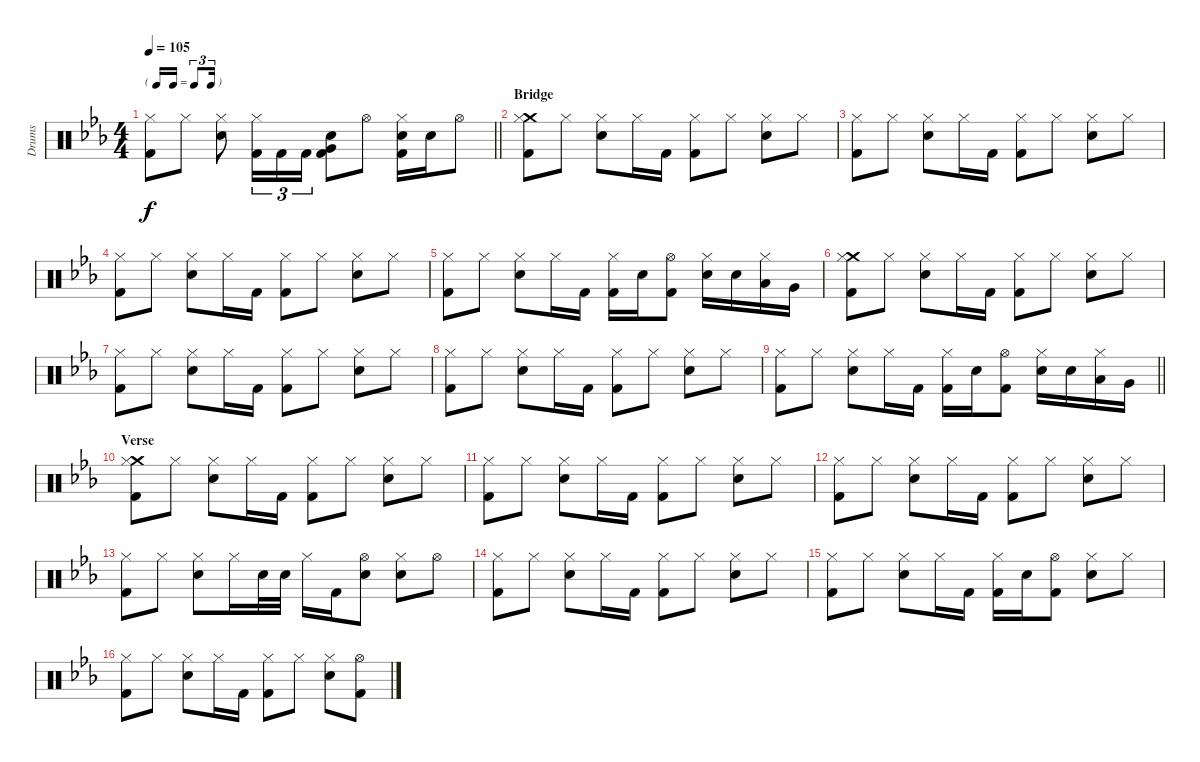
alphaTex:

\track ("Drums" "Drums") {instrument percussion}
\staff {score}
\articulation defaults
\ts (4 4)
\tf triplet16th
\tempo 105
\clef neutral
\barLineRight lightlight
\ks eb
("Hi-Hat (closed)" "Kick (hit) 2").8{dy f} "Hi-Hat (closed)".8 ("Hi-Hat (closed)" "Snare (hit) 2").8 ("Hi-Hat (closed)" "Kick (hit) 2").16{tu (3 2)} "Kick (hit) 2".16{tu (3 2)} "Kick (hit) 2".16{tu (3 2)} ("Snare (hit) 2" "Very Low Tom (hit)" "Kick (hit) 2").8 "Hi-Hat (open)".8 ("Hi-Hat (closed)" "Snare (hit) 2" "Kick (hit) 2").16 "Snare (hit) 2".16 "Hi-Hat (open)".8 |
\section ("" "Bridge")
("Crash medium (hit)" "Hi-Hat (closed)" "Kick (hit) 2").8 "Hi-Hat (closed)".8 ("Hi-Hat (closed)" "Snare (hit) 2").8 "Hi-Hat (closed)".16 "Kick (hit) 2".16 ("Hi-Hat (closed)" "Kick (hit) 2").8 "Hi-Hat (closed)".8 ("Hi-Hat (closed)" "Snare (hit) 2").8 "Hi-Hat (closed)".8 |
("Hi-Hat (closed)" "Kick (hit) 2").8 "Hi-Hat (closed)".8 ("Hi-Hat (closed)" "Snare (hit) 2").8 "Hi-Hat (closed)".16 "Kick (hit) 2".16 ("Hi-Hat (closed)" "Kick (hit) 2").8 "Hi-Hat (closed)".8 ("Hi-Hat (closed)" "Snare (hit) 2").8 "Hi-Hat (closed)".8 |
("Hi-Hat (closed)" "Kick (hit) 2").8 "Hi-Hat (closed)".8 ("Hi-Hat (closed)" "Snare (hit) 2").8 "Hi-Hat (closed)".16 "Kick (hit) 2".16 ("Hi-Hat (closed)" "Kick (hit) 2").8 "Hi-Hat (closed)".8 ("Hi-Hat (closed)" "Snare (hit) 2").8 "Hi-Hat (closed)".8 |
("Hi-Hat (closed)" "Kick (hit) 2").8 "Hi-Hat (closed)".8 ("Hi-Hat (closed)" "Snare (hit) 2").8 "Hi-Hat (closed)".16 "Kick (hit) 2".16 ("Hi-Hat (closed)" "Kick (hit) 2").16 "Snare (hit) 2".16 ("Hi-Hat (open)" "Kick (hit) 2").8 ("Hi-Hat (closed)" "Snare (hit) 2").16 "Snare (hit) 2".16 ("Hi-Hat (closed)" "Low Tom (hit)").16 "Very Low Tom (hit)".16 |
("Crash medium (hit)" "Hi-Hat (closed)" "Kick (hit) 2").8 "Hi-Hat (closed)".8 ("Hi-Hat (closed)" "Snare (hit) 2").8 "Hi-Hat (closed)".16 "Kick (hit) 2".16 ("Hi-Hat (closed)" "Kick (hit) 2").8 "Hi-Hat (closed)".8 ("Hi-Hat (closed)" "Snare (hit) 2").8 "Hi-Hat (closed)".8 |
("Hi-Hat (closed)" "Kick (hit) 2").8 "Hi-Hat (closed)".8 ("Hi-Hat (closed)" "Snare (hit) 2").8 "Hi-Hat (closed)".16 "Kick (hit) 2".16 ("Hi-Hat (closed)" "Kick (hit) 2").8 "Hi-Hat (closed)".8 ("Hi-Hat (closed)" "Snare (hit) 2").8 "Hi-Hat (closed)".8 |
("Hi-Hat (closed)" "Kick (hit) 2").8 "Hi-Hat (closed)".8 ("Hi-Hat (closed)" "Snare (hit) 2").8 "Hi-Hat (closed)".16 "Kick (hit) 2".16 ("Hi-Hat (closed)" "Kick (hit) 2").8 "Hi-Hat (closed)".8 ("Hi-Hat (closed)" "Snare (hit) 2").8 "Hi-Hat (closed)".8 |
\barLineRight lightlight
("Hi-Hat (closed)" "Kick (hit) 2").8 "Hi-Hat (closed)".8 ("Hi-Hat (closed)" "Snare (hit) 2").8 "Hi-Hat (closed)".16 "Kick (hit) 2".16 ("Hi-Hat (closed)" "Kick (hit) 2").16 "Snare (hit) 2".16 ("Hi-Hat (open)" "Kick (hit) 2").8 ("Hi-Hat (closed)" "Snare (hit) 2").16 "Snare (hit) 2".16 ("Hi-Hat (closed)" "Low Tom (hit)").16 "Very Low Tom (hit)".16 |
\section ("" "Verse")
("Crash medium (hit)" "Hi-Hat (closed)" "Kick (hit) 2").8 "Hi-Hat (closed)".8 ("Hi-Hat (closed)" "Snare (hit) 2").8 "Hi-Hat (closed)".16 "Kick (hit) 2".16 ("Hi-Hat (closed)" "Kick (hit) 2").8 "Hi-Hat (closed)".8 ("Hi-Hat (closed)" "Snare (hit) 2").8 "Hi-Hat (closed)".8 |
("Hi-Hat (closed)" "Kick (hit) 2").8 "Hi-Hat (closed)".8 ("Hi-Hat (closed)" "Snare (hit) 2").8 "Hi-Hat (closed)".16 "Kick (hit) 2".16 ("Hi-Hat (closed)" "Kick (hit) 2").8 "Hi-Hat (closed)".8 ("Hi-Hat (closed)" "Snare (hit) 2").8 "Hi-Hat (closed)".8 |
("Hi-Hat (closed)" "Kick (hit) 2").8 "Hi-Hat (closed)".8 ("Hi-Hat (closed)" "Snare (hit) 2").8 "Hi-Hat (closed)".16 "Kick (hit) 2".16 ("Hi-Hat (closed)" "Kick (hit) 2").8 "Hi-Hat (closed)".8 ("Hi-Hat (closed)" "Snare (hit) 2").8 "Hi-Hat (closed)".8 |
("Hi-Hat (closed)" "Kick (hit) 2").8 "Hi-Hat (closed)".8 ("Hi-Hat (closed)" "Snare (hit) 2").8 "Hi-Hat (closed)".16 "Snare (hit) 2".32 "Snare (hit) 2".32 "Hi-Hat (closed)".16 "Kick (hit) 2".16 ("Hi-Hat (open)" "Snare (hit) 2").8 ("Hi-Hat (closed)" "Snare (hit) 2").8 "Hi-Hat (open)".8 |
("Hi-Hat (closed)" "Kick (hit) 2").8 "Hi-Hat (closed)".8 ("Hi-Hat (closed)" "Snare (hit) 2").8 "Hi-Hat (closed)".16 "Kick (hit) 2".16 ("Hi-Hat (closed)" "Kick (hit) 2").8 "Hi-Hat (closed)".8 ("Hi-Hat (closed)" "Snare (hit) 2").8 "Hi-Hat (closed)".8 |
("Hi-Hat (closed)" "Kick (hit) 2").8 "Hi-Hat (closed)".8 ("Hi-Hat (closed)" "Snare (hit) 2").8 "Hi-Hat (closed)".16 "Kick (hit) 2".16 ("Hi-Hat (closed)" "Kick (hit) 2").16 "Snare (hit) 2".16 ("Hi-Hat (open)" "Kick (hit) 2").8 ("Hi-Hat (closed)" "Snare (hit) 2").8 "Hi-Hat (closed)".8 |
("Hi-Hat (closed)" "Kick (hit) 2").8 "Hi-Hat (closed)".8 ("Hi-Hat (closed)" "Snare (hit) 2").8 "Hi-Hat (closed)".16 "Kick (hit) 2".16 ("Hi-Hat (closed)" "Kick (hit) 2").8 "Hi-Hat (closed)".8 ("Hi-Hat (closed)" "Snare (hit) 2").8 ("Hi-Hat (open)" "Kick (hit) 2").8
